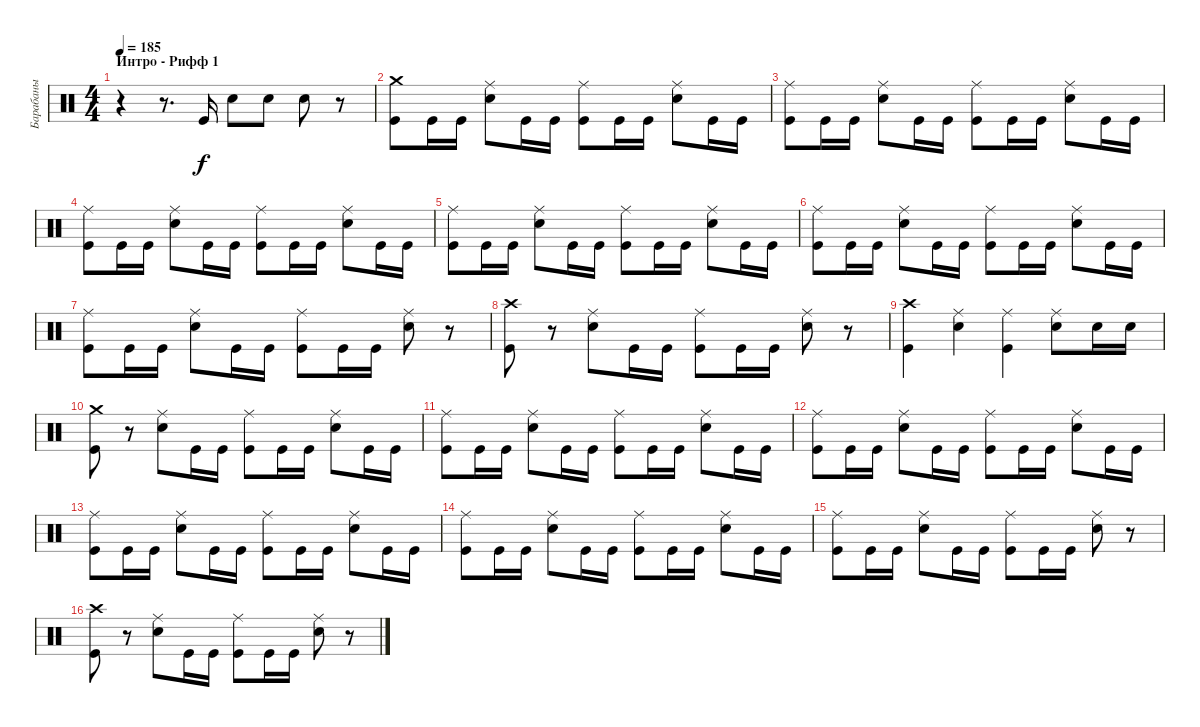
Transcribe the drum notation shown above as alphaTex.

\track ("Барабаны" "Барабаны") {instrument percussion}
\staff {score}
\articulation defaults
\ts (4 4)
\section ("" "Интро - Рифф 1")
\tempo 185
\clef neutral
\ks c
r.4{dy f} r.8{d} "Kick (hit)".16 "Snare (hit) 2".8 "Snare (hit) 2".8 "Snare (hit) 2".8 r.8 |
("Kick (hit)" "Crash medium (hit)").8 "Kick (hit)".16 "Kick (hit)".16 ("Snare (hit) 2" "Ride (middle)").8 "Kick (hit)".16 "Kick (hit)".16 ("Kick (hit)" "Ride (middle)").8 "Kick (hit)".16 "Kick (hit)".16 ("Snare (hit) 2" "Ride (middle)").8 "Kick (hit)".16 "Kick (hit)".16 |
("Kick (hit)" "Ride (middle)").8 "Kick (hit)".16 "Kick (hit)".16 ("Snare (hit) 2" "Ride (middle)").8 "Kick (hit)".16 "Kick (hit)".16 ("Kick (hit)" "Ride (middle)").8 "Kick (hit)".16 "Kick (hit)".16 ("Snare (hit) 2" "Ride (middle)").8 "Kick (hit)".16 "Kick (hit)".16 |
("Kick (hit)" "Ride (middle)").8 "Kick (hit)".16 "Kick (hit)".16 ("Snare (hit) 2" "Ride (middle)").8 "Kick (hit)".16 "Kick (hit)".16 ("Kick (hit)" "Ride (middle)").8 "Kick (hit)".16 "Kick (hit)".16 ("Snare (hit) 2" "Ride (middle)").8 "Kick (hit)".16 "Kick (hit)".16 |
("Kick (hit)" "Ride (middle)").8 "Kick (hit)".16 "Kick (hit)".16 ("Snare (hit) 2" "Ride (middle)").8 "Kick (hit)".16 "Kick (hit)".16 ("Kick (hit)" "Ride (middle)").8 "Kick (hit)".16 "Kick (hit)".16 ("Snare (hit) 2" "Ride (middle)").8 "Kick (hit)".16 "Kick (hit)".16 |
("Kick (hit)" "Ride (middle)").8 "Kick (hit)".16 "Kick (hit)".16 ("Snare (hit) 2" "Ride (middle)").8 "Kick (hit)".16 "Kick (hit)".16 ("Kick (hit)" "Ride (middle)").8 "Kick (hit)".16 "Kick (hit)".16 ("Snare (hit) 2" "Ride (middle)").8 "Kick (hit)".16 "Kick (hit)".16 |
("Kick (hit)" "Ride (middle)").8 "Kick (hit)".16 "Kick (hit)".16 ("Snare (hit) 2" "Ride (middle)").8 "Kick (hit)".16 "Kick (hit)".16 ("Kick (hit)" "Ride (middle)").8 "Kick (hit)".16 "Kick (hit)".16 ("Snare (hit) 2" "Ride (middle)").8 r.8 |
("Kick (hit)" "Crash high (hit)").8 r.8 ("Snare (hit) 2" "Ride (middle)").8 "Kick (hit)".16 "Kick (hit)".16 ("Kick (hit)" "Ride (middle)").8 "Kick (hit)".16 "Kick (hit)".16 ("Snare (hit) 2" "Ride (middle)").8 r.8 |
("Kick (hit)" "Crash high (hit)").4 ("Snare (hit) 2" "Ride (middle)").4 ("Kick (hit)" "Ride (middle)").4 ("Snare (hit) 2" "Ride (middle)").8 "Snare (hit) 2".16 "Snare (hit) 2".16 |
("Kick (hit)" "Crash medium (hit)").8 r.8 ("Snare (hit) 2" "Ride (middle)").8 "Kick (hit)".16 "Kick (hit)".16 ("Kick (hit)" "Ride (middle)").8 "Kick (hit)".16 "Kick (hit)".16 ("Snare (hit) 2" "Ride (middle)").8 "Kick (hit)".16 "Kick (hit)".16 |
("Kick (hit)" "Ride (middle)").8 "Kick (hit)".16 "Kick (hit)".16 ("Snare (hit) 2" "Ride (middle)").8 "Kick (hit)".16 "Kick (hit)".16 ("Kick (hit)" "Ride (middle)").8 "Kick (hit)".16 "Kick (hit)".16 ("Snare (hit) 2" "Ride (middle)").8 "Kick (hit)".16 "Kick (hit)".16 |
("Kick (hit)" "Ride (middle)").8 "Kick (hit)".16 "Kick (hit)".16 ("Snare (hit) 2" "Ride (middle)").8 "Kick (hit)".16 "Kick (hit)".16 ("Kick (hit)" "Ride (middle)").8 "Kick (hit)".16 "Kick (hit)".16 ("Snare (hit) 2" "Ride (middle)").8 "Kick (hit)".16 "Kick (hit)".16 |
("Kick (hit)" "Ride (middle)").8 "Kick (hit)".16 "Kick (hit)".16 ("Snare (hit) 2" "Ride (middle)").8 "Kick (hit)".16 "Kick (hit)".16 ("Kick (hit)" "Ride (middle)").8 "Kick (hit)".16 "Kick (hit)".16 ("Snare (hit) 2" "Ride (middle)").8 "Kick (hit)".16 "Kick (hit)".16 |
("Kick (hit)" "Ride (middle)").8 "Kick (hit)".16 "Kick (hit)".16 ("Snare (hit) 2" "Ride (middle)").8 "Kick (hit)".16 "Kick (hit)".16 ("Kick (hit)" "Ride (middle)").8 "Kick (hit)".16 "Kick (hit)".16 ("Snare (hit) 2" "Ride (middle)").8 "Kick (hit)".16 "Kick (hit)".16 |
("Kick (hit)" "Ride (middle)").8 "Kick (hit)".16 "Kick (hit)".16 ("Snare (hit) 2" "Ride (middle)").8 "Kick (hit)".16 "Kick (hit)".16 ("Kick (hit)" "Ride (middle)").8 "Kick (hit)".16 "Kick (hit)".16 ("Snare (hit) 2" "Ride (middle)").8 r.8 |
("Kick (hit)" "Crash high (hit)").8 r.8 ("Snare (hit) 2" "Ride (middle)").8 "Kick (hit)".16 "Kick (hit)".16 ("Kick (hit)" "Ride (middle)").8 "Kick (hit)".16 "Kick (hit)".16 ("Snare (hit) 2" "Ride (middle)").8 r.8
